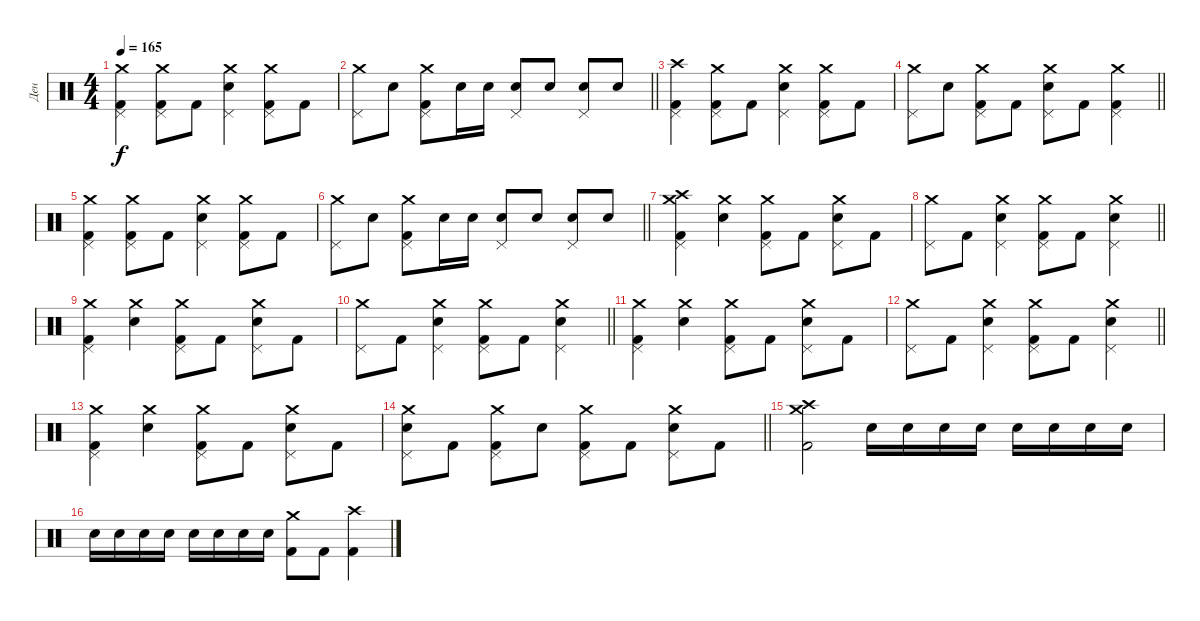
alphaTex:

\track ("Ден" "Ден") {instrument percussion}
\staff {score}
\articulation defaults
\ts (4 4)
\tempo 165
\clef neutral
\ks c
("Crash medium (hit)" "Kick (hit) 2" "Pedal Hi-Hat (hit)").4{dy f} ("Crash medium (hit)" "Kick (hit) 2" "Pedal Hi-Hat (hit)").8 "Kick (hit) 2".8 ("Crash medium (hit)" "Snare (hit) 2" "Pedal Hi-Hat (hit)").4 ("Crash medium (hit)" "Kick (hit) 2" "Pedal Hi-Hat (hit)").8 "Kick (hit) 2".8 |
\barLineRight lightlight
("Crash medium (hit)" "Pedal Hi-Hat (hit)").8 "Snare (hit) 2".8 ("Crash medium (hit)" "Kick (hit) 2" "Pedal Hi-Hat (hit)").8 "Snare (hit) 2".16 "Snare (hit) 2".16 ("Snare (hit) 2" "Pedal Hi-Hat (hit)").8 "Snare (hit) 2".8 ("Snare (hit) 2" "Pedal Hi-Hat (hit)").8 "Snare (hit) 2".8 |
("Crash high (hit)" "Kick (hit) 2" "Pedal Hi-Hat (hit)").4 ("Crash medium (hit)" "Kick (hit) 2" "Pedal Hi-Hat (hit)").8 "Kick (hit) 2".8 ("Crash medium (hit)" "Snare (hit) 2" "Pedal Hi-Hat (hit)").4 ("Crash medium (hit)" "Kick (hit) 2" "Pedal Hi-Hat (hit)").8 "Kick (hit) 2".8 |
\barLineRight lightlight
("Crash medium (hit)" "Pedal Hi-Hat (hit)").8 "Snare (hit) 2".8 ("Crash medium (hit)" "Kick (hit) 2" "Pedal Hi-Hat (hit)").8 "Kick (hit) 2".8 ("Crash medium (hit)" "Snare (hit) 2" "Pedal Hi-Hat (hit)").8 "Kick (hit) 2".8 ("Crash medium (hit)" "Kick (hit) 2" "Pedal Hi-Hat (hit)").4 |
("Crash medium (hit)" "Kick (hit) 2" "Pedal Hi-Hat (hit)").4 ("Crash medium (hit)" "Kick (hit) 2" "Pedal Hi-Hat (hit)").8 "Kick (hit) 2".8 ("Crash medium (hit)" "Snare (hit) 2" "Pedal Hi-Hat (hit)").4 ("Crash medium (hit)" "Kick (hit) 2" "Pedal Hi-Hat (hit)").8 "Kick (hit) 2".8 |
\barLineRight lightlight
("Crash medium (hit)" "Pedal Hi-Hat (hit)").8 "Snare (hit) 2".8 ("Crash medium (hit)" "Kick (hit) 2" "Pedal Hi-Hat (hit)").8 "Snare (hit) 2".16 "Snare (hit) 2".16 ("Snare (hit) 2" "Pedal Hi-Hat (hit)").8 "Snare (hit) 2".8 ("Snare (hit) 2" "Pedal Hi-Hat (hit)").8 "Snare (hit) 2".8 |
("Crash high (hit)" "Crash medium (hit)" "Kick (hit) 2" "Pedal Hi-Hat (hit)").4 ("Crash medium (hit)" "Snare (hit) 2").4 ("Crash medium (hit)" "Kick (hit) 2" "Pedal Hi-Hat (hit)").8 "Kick (hit) 2".8 ("Crash medium (hit)" "Snare (hit) 2" "Pedal Hi-Hat (hit)").8 "Kick (hit) 2".8 |
\barLineRight lightlight
("Crash medium (hit)" "Pedal Hi-Hat (hit)").8 "Kick (hit) 2".8 ("Crash medium (hit)" "Snare (hit) 2" "Pedal Hi-Hat (hit)").4 ("Crash medium (hit)" "Kick (hit) 2" "Pedal Hi-Hat (hit)").8 "Kick (hit) 2".8 ("Crash medium (hit)" "Snare (hit) 2" "Pedal Hi-Hat (hit)").4 |
("Crash medium (hit)" "Kick (hit) 2" "Pedal Hi-Hat (hit)").4 ("Crash medium (hit)" "Snare (hit) 2").4 ("Crash medium (hit)" "Kick (hit) 2" "Pedal Hi-Hat (hit)").8 "Kick (hit) 2".8 ("Crash medium (hit)" "Snare (hit) 2" "Pedal Hi-Hat (hit)").8 "Kick (hit) 2".8 |
\barLineRight lightlight
("Crash medium (hit)" "Pedal Hi-Hat (hit)").8 "Kick (hit) 2".8 ("Crash medium (hit)" "Snare (hit) 2" "Pedal Hi-Hat (hit)").4 ("Crash medium (hit)" "Kick (hit) 2" "Pedal Hi-Hat (hit)").8 "Kick (hit) 2".8 ("Crash medium (hit)" "Snare (hit) 2" "Pedal Hi-Hat (hit)").4 |
("Crash medium (hit)" "Kick (hit) 2" "Pedal Hi-Hat (hit)").4 ("Crash medium (hit)" "Snare (hit) 2").4 ("Crash medium (hit)" "Kick (hit) 2" "Pedal Hi-Hat (hit)").8 "Kick (hit) 2".8 ("Crash medium (hit)" "Snare (hit) 2" "Pedal Hi-Hat (hit)").8 "Kick (hit) 2".8 |
\barLineRight lightlight
("Crash medium (hit)" "Pedal Hi-Hat (hit)").8 "Kick (hit) 2".8 ("Crash medium (hit)" "Snare (hit) 2" "Pedal Hi-Hat (hit)").4 ("Crash medium (hit)" "Kick (hit) 2" "Pedal Hi-Hat (hit)").8 "Kick (hit) 2".8 ("Crash medium (hit)" "Snare (hit) 2" "Pedal Hi-Hat (hit)").4 |
("Crash medium (hit)" "Kick (hit) 2" "Pedal Hi-Hat (hit)").4 ("Crash medium (hit)" "Snare (hit) 2").4 ("Crash medium (hit)" "Kick (hit) 2" "Pedal Hi-Hat (hit)").8 "Kick (hit) 2".8 ("Crash medium (hit)" "Snare (hit) 2" "Pedal Hi-Hat (hit)").8 "Kick (hit) 2".8 |
\barLineRight lightlight
("Crash medium (hit)" "Pedal Hi-Hat (hit)" "Snare (hit) 2").8 "Kick (hit) 2".8 ("Crash medium (hit)" "Pedal Hi-Hat (hit)" "Kick (hit) 2").8 "Snare (hit) 2".8 ("Crash medium (hit)" "Pedal Hi-Hat (hit)" "Kick (hit) 2").8 "Kick (hit) 2".8 ("Crash medium (hit)" "Pedal Hi-Hat (hit)" "Snare (hit) 2").8 "Kick (hit) 2".8 |
("Crash high (hit)" "Crash medium (hit)" "Kick (hit) 2").2 "Snare (hit) 2".16 "Snare (hit) 2".16 "Snare (hit) 2".16 "Snare (hit) 2".16 "Snare (hit) 2".16 "Snare (hit) 2".16 "Snare (hit) 2".16 "Snare (hit) 2".16 |
"Snare (hit) 2".16 "Snare (hit) 2".16 "Snare (hit) 2".16 "Snare (hit) 2".16 "Snare (hit) 2".16 "Snare (hit) 2".16 "Snare (hit) 2".16 "Snare (hit) 2".16 ("Crash medium (hit)" "Kick (hit) 2").8 "Kick (hit) 2".8 ("Crash high (hit)" "Kick (hit) 2").4
